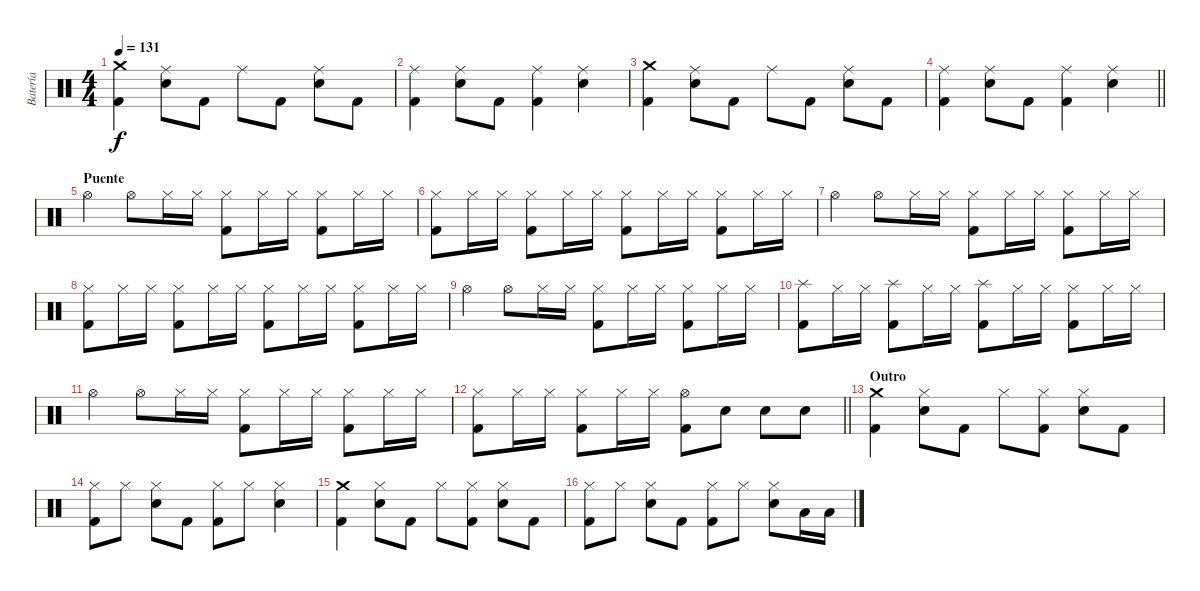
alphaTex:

\track ("Batería" "Batería") {instrument percussion}
\staff {score}
\articulation defaults
\ts (4 4)
\tempo 131
\clef neutral
\ks aminor
("Crash medium (hit)" "Kick (hit) 2").4{dy f} ("Ride (middle)" "Electric Snare (hit)").8 "Kick (hit) 2".8 "Ride (middle)".8 "Kick (hit) 2".8 ("Ride (middle)" "Electric Snare (hit)").8 "Kick (hit) 2".8 |
("Ride (middle)" "Kick (hit) 2").4 ("Ride (middle)" "Electric Snare (hit)").8 "Kick (hit) 2".8 ("Ride (middle)" "Kick (hit) 2").4 ("Ride (middle)" "Electric Snare (hit)").4 |
("Crash medium (hit)" "Kick (hit) 2").4 ("Ride (middle)" "Electric Snare (hit)").8 "Kick (hit) 2".8 "Ride (middle)".8 "Kick (hit) 2".8 ("Ride (middle)" "Electric Snare (hit)").8 "Kick (hit) 2".8 |
\barLineRight lightlight
("Ride (middle)" "Kick (hit) 2").4 ("Ride (middle)" "Electric Snare (hit)").8 "Kick (hit) 2".8 ("Ride (middle)" "Kick (hit) 2").4 ("Ride (middle)" "Electric Snare (hit)").4 |
\section ("" "Puente")
"Hi-Hat (open)".4 "Hi-Hat (open)".8 "Hi-Hat (closed)".16 "Hi-Hat (closed)".16 ("Hi-Hat (closed)" "Kick (hit) 2").8 "Hi-Hat (closed)".16 "Hi-Hat (closed)".16 ("Hi-Hat (closed)" "Kick (hit) 2").8 "Hi-Hat (closed)".16 "Hi-Hat (closed)".16 |
("Hi-Hat (closed)" "Kick (hit) 2").8 "Hi-Hat (closed)".16 "Hi-Hat (closed)".16 ("Hi-Hat (closed)" "Kick (hit) 2").8 "Hi-Hat (closed)".16 "Hi-Hat (closed)".16 ("Hi-Hat (closed)" "Kick (hit) 2").8 "Hi-Hat (closed)".16 "Hi-Hat (closed)".16 ("Hi-Hat (closed)" "Kick (hit) 2").8 "Hi-Hat (closed)".16 "Hi-Hat (closed)".16 |
"Hi-Hat (open)".4 "Hi-Hat (open)".8 "Hi-Hat (closed)".16 "Hi-Hat (closed)".16 ("Hi-Hat (closed)" "Kick (hit) 2").8 "Hi-Hat (closed)".16 "Hi-Hat (closed)".16 ("Hi-Hat (closed)" "Kick (hit) 2").8 "Hi-Hat (closed)".16 "Hi-Hat (closed)".16 |
("Hi-Hat (closed)" "Kick (hit) 2").8 "Hi-Hat (closed)".16 "Hi-Hat (closed)".16 ("Hi-Hat (closed)" "Kick (hit) 2").8 "Hi-Hat (closed)".16 "Hi-Hat (closed)".16 ("Hi-Hat (closed)" "Kick (hit) 2").8 "Hi-Hat (closed)".16 "Hi-Hat (closed)".16 ("Hi-Hat (closed)" "Kick (hit) 2").8 "Hi-Hat (closed)".16 "Hi-Hat (closed)".16 |
"Hi-Hat (open)".4 "Hi-Hat (open)".8 "Hi-Hat (closed)".16 "Hi-Hat (closed)".16 ("Hi-Hat (closed)" "Kick (hit) 2").8 "Hi-Hat (closed)".16 "Hi-Hat (closed)".16 ("Hi-Hat (closed)" "Kick (hit) 2").8 "Hi-Hat (closed)".16 "Hi-Hat (closed)".16 |
("Splash (hit)" "Kick (hit) 2").8 "Hi-Hat (closed)".16 "Hi-Hat (closed)".16 ("Splash (hit)" "Kick (hit) 2").8 "Hi-Hat (closed)".16 "Hi-Hat (closed)".16 ("Splash (hit)" "Kick (hit) 2").8 "Hi-Hat (closed)".16 "Hi-Hat (closed)".16 ("Hi-Hat (closed)" "Kick (hit) 2").8 "Hi-Hat (closed)".16 "Hi-Hat (closed)".16 |
"Hi-Hat (open)".4 "Hi-Hat (open)".8 "Hi-Hat (closed)".16 "Hi-Hat (closed)".16 ("Hi-Hat (closed)" "Kick (hit) 2").8 "Hi-Hat (closed)".16 "Hi-Hat (closed)".16 ("Hi-Hat (closed)" "Kick (hit) 2").8 "Hi-Hat (closed)".16 "Hi-Hat (closed)".16 |
\barLineRight lightlight
("Hi-Hat (closed)" "Kick (hit) 2").8 "Hi-Hat (closed)".16 "Hi-Hat (closed)".16 ("Hi-Hat (closed)" "Kick (hit) 2").8 "Hi-Hat (closed)".16 "Hi-Hat (closed)".16 ("Hi-Hat (open)" "Kick (hit) 2").8 "Electric Snare (hit)".8 "Electric Snare (hit)".8 "Electric Snare (hit)".8 |
\section ("" "Outro")
("Crash medium (hit)" "Kick (hit) 2").4 ("Hi-Hat (closed)" "Electric Snare (hit)").8 "Kick (hit) 2".8 "Hi-Hat (closed)".8 ("Hi-Hat (closed)" "Kick (hit) 2").8 ("Hi-Hat (closed)" "Electric Snare (hit)").8 "Kick (hit) 2".8 |
("Hi-Hat (closed)" "Kick (hit) 2").8 "Hi-Hat (closed)".8 ("Hi-Hat (closed)" "Electric Snare (hit)").8 "Kick (hit) 2".8 ("Hi-Hat (closed)" "Kick (hit) 2").8 "Hi-Hat (closed)".8 ("Hi-Hat (closed)" "Electric Snare (hit)").4 |
("Crash medium (hit)" "Kick (hit) 2").4 ("Hi-Hat (closed)" "Electric Snare (hit)").8 "Kick (hit) 2".8 "Hi-Hat (closed)".8 ("Hi-Hat (closed)" "Kick (hit) 2").8 ("Hi-Hat (closed)" "Electric Snare (hit)").8 "Kick (hit) 2".8 |
("Hi-Hat (closed)" "Kick (hit) 2").8 "Hi-Hat (closed)".8 ("Hi-Hat (closed)" "Electric Snare (hit)").8 "Kick (hit) 2".8 ("Hi-Hat (closed)" "Kick (hit) 2").8 "Hi-Hat (closed)".8 ("Hi-Hat (closed)" "Electric Snare (hit)").8 "Low Tom (hit)".16 "Low Tom (hit)".16
